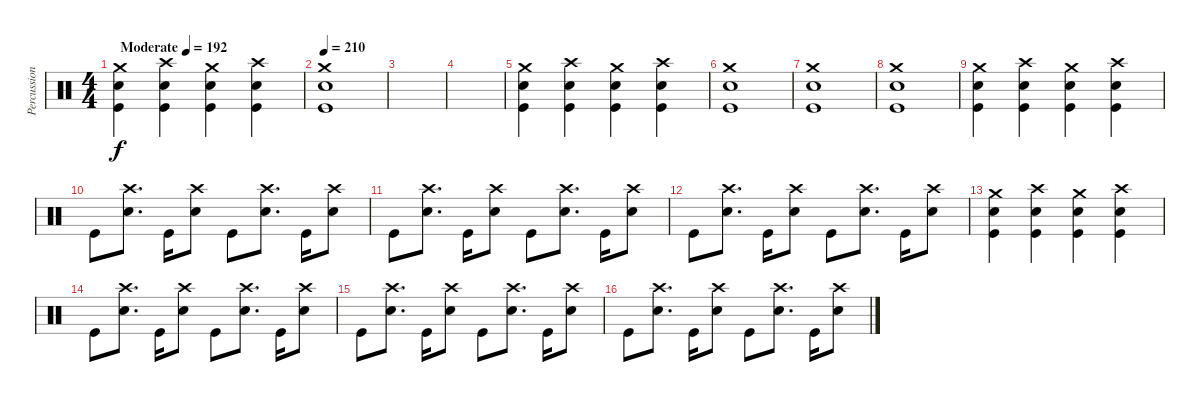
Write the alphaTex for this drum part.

\track ("Percussions" "Percussion") {instrument percussion}
\staff {score}
\articulation defaults
\ts (4 4)
\tempo (192 "Moderate")
\tempo 98
\tempo 100
\tempo (192 "Moderate")
\clef neutral
\ks c
("Crash medium (hit)" "Snare (hit) 2" "Kick (hit)").4{dy f} ("Crash high (hit)" "Snare (hit) 2" "Kick (hit)").4 ("Crash medium (hit)" "Snare (hit) 2" "Kick (hit)").4 ("Crash high (hit)" "Snare (hit) 2" "Kick (hit)").4 |
\tempo 210
("Crash medium (hit)" "Snare (hit) 2" "Kick (hit)").1 |
|
|
("Crash medium (hit)" "Snare (hit) 2" "Kick (hit)").4 ("Crash high (hit)" "Snare (hit) 2" "Kick (hit)").4 ("Crash medium (hit)" "Snare (hit) 2" "Kick (hit)").4 ("Crash high (hit)" "Snare (hit) 2" "Kick (hit)").4 |
("Crash medium (hit)" "Snare (hit) 2" "Kick (hit)").1 |
("Crash medium (hit)" "Snare (hit) 2" "Kick (hit)").1 |
("Crash medium (hit)" "Snare (hit) 2" "Kick (hit)").1 |
("Crash medium (hit)" "Snare (hit) 2" "Kick (hit)").4 ("Crash high (hit)" "Snare (hit) 2" "Kick (hit)").4 ("Crash medium (hit)" "Snare (hit) 2" "Kick (hit)").4 ("Crash high (hit)" "Snare (hit) 2" "Kick (hit)").4 |
"Kick (hit)".8 ("Crash high (hit)" "Snare (hit) 2").8{d} "Kick (hit)".16 ("Crash high (hit)" "Snare (hit) 2").8 "Kick (hit)".8 ("Crash high (hit)" "Snare (hit) 2").8{d} "Kick (hit)".16 ("Crash high (hit)" "Snare (hit) 2").8 |
"Kick (hit)".8 ("Crash high (hit)" "Snare (hit) 2").8{d} "Kick (hit)".16 ("Crash high (hit)" "Snare (hit) 2").8 "Kick (hit)".8 ("Crash high (hit)" "Snare (hit) 2").8{d} "Kick (hit)".16 ("Crash high (hit)" "Snare (hit) 2").8 |
"Kick (hit)".8 ("Crash high (hit)" "Snare (hit) 2").8{d} "Kick (hit)".16 ("Crash high (hit)" "Snare (hit) 2").8 "Kick (hit)".8 ("Crash high (hit)" "Snare (hit) 2").8{d} "Kick (hit)".16 ("Crash high (hit)" "Snare (hit) 2").8 |
("Crash medium (hit)" "Snare (hit) 2" "Kick (hit)").4 ("Crash high (hit)" "Snare (hit) 2" "Kick (hit)").4 ("Crash medium (hit)" "Snare (hit) 2" "Kick (hit)").4 ("Crash high (hit)" "Snare (hit) 2" "Kick (hit)").4 |
"Kick (hit)".8 ("Crash high (hit)" "Snare (hit) 2").8{d} "Kick (hit)".16 ("Crash high (hit)" "Snare (hit) 2").8 "Kick (hit)".8 ("Crash high (hit)" "Snare (hit) 2").8{d} "Kick (hit)".16 ("Crash high (hit)" "Snare (hit) 2").8 |
"Kick (hit)".8 ("Crash high (hit)" "Snare (hit) 2").8{d} "Kick (hit)".16 ("Crash high (hit)" "Snare (hit) 2").8 "Kick (hit)".8 ("Crash high (hit)" "Snare (hit) 2").8{d} "Kick (hit)".16 ("Crash high (hit)" "Snare (hit) 2").8 |
"Kick (hit)".8 ("Crash high (hit)" "Snare (hit) 2").8{d} "Kick (hit)".16 ("Crash high (hit)" "Snare (hit) 2").8 "Kick (hit)".8 ("Crash high (hit)" "Snare (hit) 2").8{d} "Kick (hit)".16 ("Crash high (hit)" "Snare (hit) 2").8
